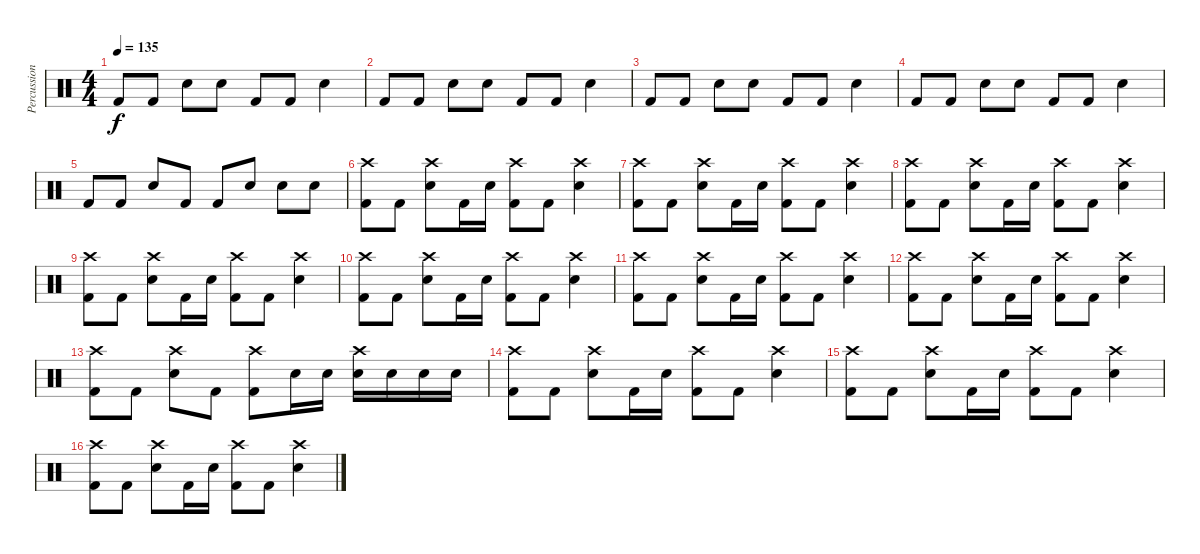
\track ("Percussion" "Percussion") {instrument percussion}
\staff {score}
\articulation defaults
\ts (4 4)
\tempo 135
\clef neutral
\ks c "Kick (hit) 2".8{dy f} "Kick (hit) 2".8 "Snare (hit) 2".8 "Snare (hit) 2".8 "Kick (hit) 2".8 "Kick (hit) 2".8 "Snare (hit) 2".4
|
"Kick (hit) 2".8 "Kick (hit) 2".8 "Snare (hit) 2".8 "Snare (hit) 2".8 "Kick (hit) 2".8 "Kick (hit) 2".8 "Snare (hit) 2".4 |
"Kick (hit) 2".8 "Kick (hit) 2".8 "Snare (hit) 2".8 "Snare (hit) 2".8 "Kick (hit) 2".8 "Kick (hit) 2".8 "Snare (hit) 2".4 |
"Kick (hit) 2".8 "Kick (hit) 2".8 "Snare (hit) 2".8 "Snare (hit) 2".8 "Kick (hit) 2".8 "Kick (hit) 2".8 "Snare (hit) 2".4 |
"Kick (hit) 2".8 "Kick (hit) 2".8 "Snare (hit) 2".8 "Kick (hit) 2".8 "Kick (hit) 2".8 "Snare (hit) 2".8 "Snare (hit) 2".8 "Snare (hit) 2".8 |
("Kick (hit) 2" "Crash high (hit)").8 "Kick (hit) 2".8 ("Snare (hit) 2" "Crash high (hit)").8 "Kick (hit) 2".16 "Snare (hit) 2".16 ("Kick (hit) 2" "Crash high (hit)").8 "Kick (hit) 2".8 ("Snare (hit) 2" "Crash high (hit)").4 |
("Kick (hit) 2" "Crash high (hit)").8 "Kick (hit) 2".8 ("Snare (hit) 2" "Crash high (hit)").8 "Kick (hit) 2".16 "Snare (hit) 2".16 ("Kick (hit) 2" "Crash high (hit)").8 "Kick (hit) 2".8 ("Snare (hit) 2" "Crash high (hit)").4 |
("Kick (hit) 2" "Crash high (hit)").8 "Kick (hit) 2".8 ("Snare (hit) 2" "Crash high (hit)").8 "Kick (hit) 2".16 "Snare (hit) 2".16 ("Kick (hit) 2" "Crash high (hit)").8 "Kick (hit) 2".8 ("Snare (hit) 2" "Crash high (hit)").4 |
("Kick (hit) 2" "Crash high (hit)").8 "Kick (hit) 2".8 ("Snare (hit) 2" "Crash high (hit)").8 "Kick (hit) 2".16 "Snare (hit) 2".16 ("Kick (hit) 2" "Crash high (hit)").8 "Kick (hit) 2".8 ("Snare (hit) 2" "Crash high (hit)").4 |
("Kick (hit) 2" "Crash high (hit)").8 "Kick (hit) 2".8 ("Snare (hit) 2" "Crash high (hit)").8 "Kick (hit) 2".16 "Snare (hit) 2".16 ("Kick (hit) 2" "Crash high (hit)").8 "Kick (hit) 2".8 ("Snare (hit) 2" "Crash high (hit)").4 |
("Kick (hit) 2" "Crash high (hit)").8 "Kick (hit) 2".8 ("Snare (hit) 2" "Crash high (hit)").8 "Kick (hit) 2".16 "Snare (hit) 2".16 ("Kick (hit) 2" "Crash high (hit)").8 "Kick (hit) 2".8 ("Snare (hit) 2" "Crash high (hit)").4 |
("Kick (hit) 2" "Crash high (hit)").8 "Kick (hit) 2".8 ("Snare (hit) 2" "Crash high (hit)").8 "Kick (hit) 2".16 "Snare (hit) 2".16 ("Kick (hit) 2" "Crash high (hit)").8 "Kick (hit) 2".8 ("Snare (hit) 2" "Crash high (hit)").4 |
("Kick (hit) 2" "Crash high (hit)").8 "Kick (hit) 2".8 ("Snare (hit) 2" "Crash high (hit)").8 "Kick (hit) 2".8 ("Kick (hit) 2" "Crash high (hit)").8 "Snare (hit) 2".16 "Snare (hit) 2".16 ("Snare (hit) 2" "Crash high (hit)").16 "Snare (hit) 2".16 "Snare (hit) 2".16 "Snare (hit) 2".16 |
("Kick (hit) 2" "Crash high (hit)").8 "Kick (hit) 2".8 ("Snare (hit) 2" "Crash high (hit)").8 "Kick (hit) 2".16 "Snare (hit) 2".16 ("Kick (hit) 2" "Crash high (hit)").8 "Kick (hit) 2".8 ("Snare (hit) 2" "Crash high (hit)").4 |
("Kick (hit) 2" "Crash high (hit)").8 "Kick (hit) 2".8 ("Snare (hit) 2" "Crash high (hit)").8 "Kick (hit) 2".16 "Snare (hit) 2".16 ("Kick (hit) 2" "Crash high (hit)").8 "Kick (hit) 2".8 ("Snare (hit) 2" "Crash high (hit)").4 |
("Kick (hit) 2" "Crash high (hit)").8 "Kick (hit) 2".8 ("Snare (hit) 2" "Crash high (hit)").8 "Kick (hit) 2".16 "Snare (hit) 2".16 ("Kick (hit) 2" "Crash high (hit)").8 "Kick (hit) 2".8 ("Snare (hit) 2" "Crash high (hit)").4
